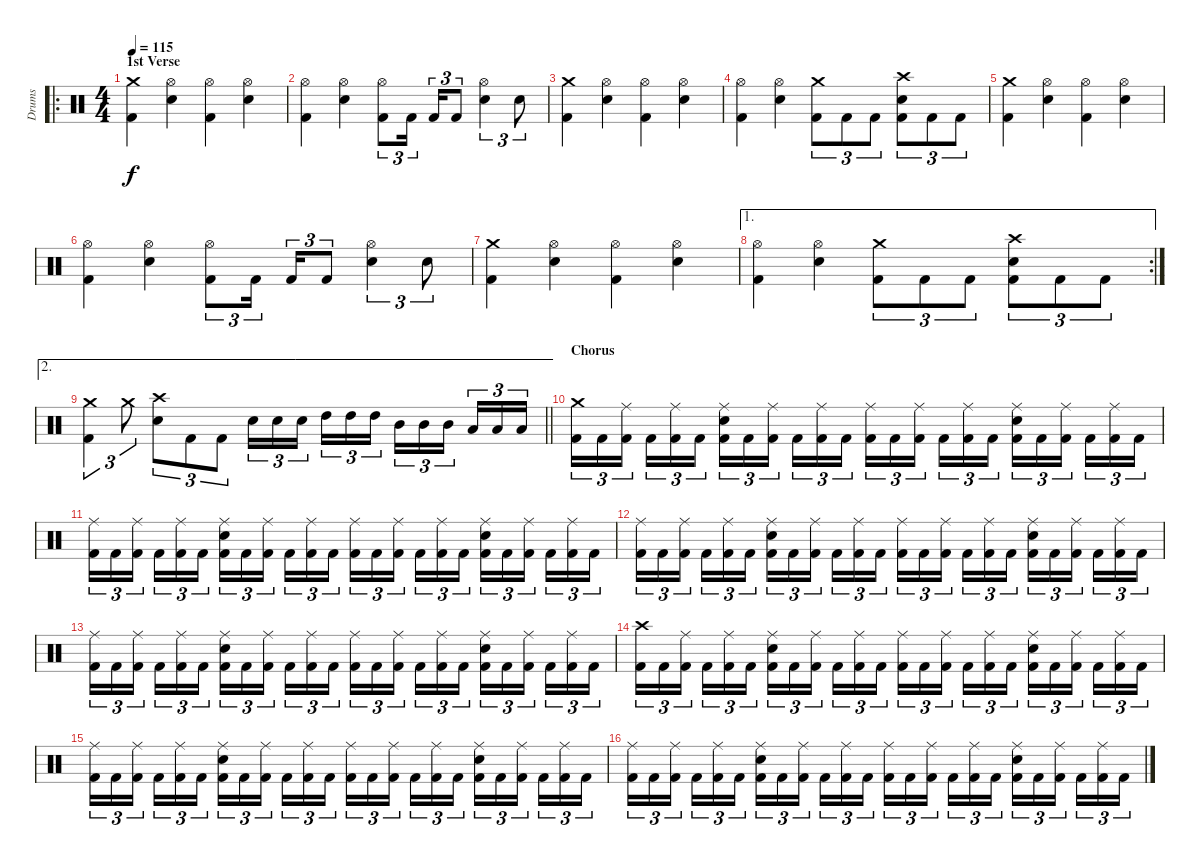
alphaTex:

\track ("Drums" "Drums") {instrument percussion}
\staff {score}
\articulation defaults
\ro
\ts (4 4)
\section ("" "1st Verse")
\tempo 115
\clef neutral
\ks c
("Kick (hit) 2" "Crash medium (hit)").4{dy f} ("Electric Snare (hit)" "Hi-Hat (open)").4 ("Kick (hit) 2" "Hi-Hat (open)").4 ("Electric Snare (hit)" "Hi-Hat (open)").4 |
("Kick (hit) 2" "Hi-Hat (open)").4 ("Electric Snare (hit)" "Hi-Hat (open)").4 ("Kick (hit) 2" "Hi-Hat (open)").8{tu (3 2)} "Kick (hit) 2".16{tu (3 2)} "Kick (hit) 2".16{tu (3 2)} "Kick (hit) 2".8{tu (3 2)} ("Electric Snare (hit)" "Hi-Hat (open)").4{tu (3 2)} "Electric Snare (hit)".8{tu (3 2)} |
("Kick (hit) 2" "Crash medium (hit)").4 ("Electric Snare (hit)" "Hi-Hat (open)").4 ("Kick (hit) 2" "Hi-Hat (open)").4 ("Electric Snare (hit)" "Hi-Hat (open)").4 |
("Kick (hit) 2" "Hi-Hat (open)").4 ("Electric Snare (hit)" "Hi-Hat (open)").4 ("Kick (hit) 2" "Crash medium (hit)").8{tu (3 2)} "Kick (hit) 2".8{tu (3 2)} "Kick (hit) 2".8{tu (3 2)} ("Kick (hit) 2" "Electric Snare (hit)" "Crash high (hit)").8{tu (3 2)} "Kick (hit) 2".8{tu (3 2)} "Kick (hit) 2".8{tu (3 2)} |
("Kick (hit) 2" "Crash medium (hit)").4 ("Electric Snare (hit)" "Hi-Hat (open)").4 ("Kick (hit) 2" "Hi-Hat (open)").4 ("Electric Snare (hit)" "Hi-Hat (open)").4 |
("Kick (hit) 2" "Hi-Hat (open)").4 ("Electric Snare (hit)" "Hi-Hat (open)").4 ("Kick (hit) 2" "Hi-Hat (open)").8{tu (3 2)} "Kick (hit) 2".16{tu (3 2)} "Kick (hit) 2".16{tu (3 2)} "Kick (hit) 2".8{tu (3 2)} ("Electric Snare (hit)" "Hi-Hat (open)").4{tu (3 2)} "Electric Snare (hit)".8{tu (3 2)} |
("Kick (hit) 2" "Crash medium (hit)").4 ("Electric Snare (hit)" "Hi-Hat (open)").4 ("Kick (hit) 2" "Hi-Hat (open)").4 ("Electric Snare (hit)" "Hi-Hat (open)").4 |
\ae 1
\rc 2
("Kick (hit) 2" "Hi-Hat (open)").4 ("Electric Snare (hit)" "Hi-Hat (open)").4 ("Kick (hit) 2" "Crash medium (hit)").8{tu (3 2)} "Kick (hit) 2".8{tu (3 2)} "Kick (hit) 2".8{tu (3 2)} ("Kick (hit) 2" "Electric Snare (hit)" "Crash high (hit)").8{tu (3 2)} "Kick (hit) 2".8{tu (3 2)} "Kick (hit) 2".8{tu (3 2)} |
\ae 2
\barLineRight lightlight
("Kick (hit) 2" "Crash medium (hit)").4{tu (3 2)} "Crash medium (hit)".8{tu (3 2)} ("Electric Snare (hit)" "Crash high (hit)").8{tu (3 2)} "Kick (hit) 2".8{tu (3 2)} "Kick (hit) 2".8{tu (3 2)} "Electric Snare (hit)".16{tu (3 2)} "Electric Snare (hit)".16{tu (3 2)} "Electric Snare (hit)".16{tu (3 2)} "High Tom (hit)".16{tu (3 2)} "High Tom (hit)".16{tu (3 2)} "High Tom (hit)".16{tu (3 2)} "Mid Tom (hit)".16{tu (3 2)} "Mid Tom (hit)".16{tu (3 2)} "Mid Tom (hit)".16{tu (3 2)} "Low Tom (hit)".16{tu (3 2)} "Low Tom (hit)".16{tu (3 2)} "Low Tom (hit)".16{tu (3 2)} |
\section ("" "Chorus")
("Kick (hit) 2" "Crash medium (hit)").16{tu (3 2)} "Kick (hit) 2".16{tu (3 2)} ("Kick (hit) 2" "Ride (middle)").16{tu (3 2)} "Kick (hit) 2".16{tu (3 2)} ("Kick (hit) 2" "Ride (middle)").16{tu (3 2)} "Kick (hit) 2".16{tu (3 2)} ("Kick (hit) 2" "Electric Snare (hit)" "Ride (middle)").16{tu (3 2)} "Kick (hit) 2".16{tu (3 2)} ("Kick (hit) 2" "Ride (middle)").16{tu (3 2)} "Kick (hit) 2".16{tu (3 2)} ("Kick (hit) 2" "Ride (middle)").16{tu (3 2)} "Kick (hit) 2".16{tu (3 2)} ("Kick (hit) 2" "Ride (middle)").16{tu (3 2)} "Kick (hit) 2".16{tu (3 2)} ("Kick (hit) 2" "Ride (middle)").16{tu (3 2)} "Kick (hit) 2".16{tu (3 2)} ("Kick (hit) 2" "Ride (middle)").16{tu (3 2)} "Kick (hit) 2".16{tu (3 2)} ("Kick (hit) 2" "Electric Snare (hit)" "Ride (middle)").16{tu (3 2)} "Kick (hit) 2".16{tu (3 2)} ("Kick (hit) 2" "Ride (middle)").16{tu (3 2)} "Kick (hit) 2".16{tu (3 2)} ("Kick (hit) 2" "Ride (middle)").16{tu (3 2)} "Kick (hit) 2".16{tu (3 2)} |
("Kick (hit) 2" "Ride (middle)").16{tu (3 2)} "Kick (hit) 2".16{tu (3 2)} ("Kick (hit) 2" "Ride (middle)").16{tu (3 2)} "Kick (hit) 2".16{tu (3 2)} ("Kick (hit) 2" "Ride (middle)").16{tu (3 2)} "Kick (hit) 2".16{tu (3 2)} ("Kick (hit) 2" "Electric Snare (hit)" "Ride (middle)").16{tu (3 2)} "Kick (hit) 2".16{tu (3 2)} ("Kick (hit) 2" "Ride (middle)").16{tu (3 2)} "Kick (hit) 2".16{tu (3 2)} ("Kick (hit) 2" "Ride (middle)").16{tu (3 2)} "Kick (hit) 2".16{tu (3 2)} ("Kick (hit) 2" "Ride (middle)").16{tu (3 2)} "Kick (hit) 2".16{tu (3 2)} ("Kick (hit) 2" "Ride (middle)").16{tu (3 2)} "Kick (hit) 2".16{tu (3 2)} ("Kick (hit) 2" "Ride (middle)").16{tu (3 2)} "Kick (hit) 2".16{tu (3 2)} ("Kick (hit) 2" "Electric Snare (hit)" "Ride (middle)").16{tu (3 2)} "Kick (hit) 2".16{tu (3 2)} ("Kick (hit) 2" "Ride (middle)").16{tu (3 2)} "Kick (hit) 2".16{tu (3 2)} ("Kick (hit) 2" "Ride (middle)").16{tu (3 2)} "Kick (hit) 2".16{tu (3 2)} |
("Kick (hit) 2" "Ride (middle)").16{tu (3 2)} "Kick (hit) 2".16{tu (3 2)} ("Kick (hit) 2" "Ride (middle)").16{tu (3 2)} "Kick (hit) 2".16{tu (3 2)} ("Kick (hit) 2" "Ride (middle)").16{tu (3 2)} "Kick (hit) 2".16{tu (3 2)} ("Kick (hit) 2" "Electric Snare (hit)" "Ride (middle)").16{tu (3 2)} "Kick (hit) 2".16{tu (3 2)} ("Kick (hit) 2" "Ride (middle)").16{tu (3 2)} "Kick (hit) 2".16{tu (3 2)} ("Kick (hit) 2" "Ride (middle)").16{tu (3 2)} "Kick (hit) 2".16{tu (3 2)} ("Kick (hit) 2" "Ride (middle)").16{tu (3 2)} "Kick (hit) 2".16{tu (3 2)} ("Kick (hit) 2" "Ride (middle)").16{tu (3 2)} "Kick (hit) 2".16{tu (3 2)} ("Kick (hit) 2" "Ride (middle)").16{tu (3 2)} "Kick (hit) 2".16{tu (3 2)} ("Kick (hit) 2" "Electric Snare (hit)" "Ride (middle)").16{tu (3 2)} "Kick (hit) 2".16{tu (3 2)} ("Kick (hit) 2" "Ride (middle)").16{tu (3 2)} "Kick (hit) 2".16{tu (3 2)} ("Kick (hit) 2" "Ride (middle)").16{tu (3 2)} "Kick (hit) 2".16{tu (3 2)} |
("Kick (hit) 2" "Ride (middle)").16{tu (3 2)} "Kick (hit) 2".16{tu (3 2)} ("Kick (hit) 2" "Ride (middle)").16{tu (3 2)} "Kick (hit) 2".16{tu (3 2)} ("Kick (hit) 2" "Ride (middle)").16{tu (3 2)} "Kick (hit) 2".16{tu (3 2)} ("Kick (hit) 2" "Electric Snare (hit)" "Ride (middle)").16{tu (3 2)} "Kick (hit) 2".16{tu (3 2)} ("Kick (hit) 2" "Ride (middle)").16{tu (3 2)} "Kick (hit) 2".16{tu (3 2)} ("Kick (hit) 2" "Ride (middle)").16{tu (3 2)} "Kick (hit) 2".16{tu (3 2)} ("Kick (hit) 2" "Ride (middle)").16{tu (3 2)} "Kick (hit) 2".16{tu (3 2)} ("Kick (hit) 2" "Ride (middle)").16{tu (3 2)} "Kick (hit) 2".16{tu (3 2)} ("Kick (hit) 2" "Ride (middle)").16{tu (3 2)} "Kick (hit) 2".16{tu (3 2)} ("Kick (hit) 2" "Electric Snare (hit)" "Ride (middle)").16{tu (3 2)} "Kick (hit) 2".16{tu (3 2)} ("Kick (hit) 2" "Ride (middle)").16{tu (3 2)} "Kick (hit) 2".16{tu (3 2)} ("Kick (hit) 2" "Ride (middle)").16{tu (3 2)} "Kick (hit) 2".16{tu (3 2)} |
("Kick (hit) 2" "Crash high (hit)").16{tu (3 2)} "Kick (hit) 2".16{tu (3 2)} ("Kick (hit) 2" "Ride (middle)").16{tu (3 2)} "Kick (hit) 2".16{tu (3 2)} ("Kick (hit) 2" "Ride (middle)").16{tu (3 2)} "Kick (hit) 2".16{tu (3 2)} ("Kick (hit) 2" "Electric Snare (hit)" "Ride (middle)").16{tu (3 2)} "Kick (hit) 2".16{tu (3 2)} ("Kick (hit) 2" "Ride (middle)").16{tu (3 2)} "Kick (hit) 2".16{tu (3 2)} ("Kick (hit) 2" "Ride (middle)").16{tu (3 2)} "Kick (hit) 2".16{tu (3 2)} ("Kick (hit) 2" "Ride (middle)").16{tu (3 2)} "Kick (hit) 2".16{tu (3 2)} ("Kick (hit) 2" "Ride (middle)").16{tu (3 2)} "Kick (hit) 2".16{tu (3 2)} ("Kick (hit) 2" "Ride (middle)").16{tu (3 2)} "Kick (hit) 2".16{tu (3 2)} ("Kick (hit) 2" "Electric Snare (hit)" "Ride (middle)").16{tu (3 2)} "Kick (hit) 2".16{tu (3 2)} ("Kick (hit) 2" "Ride (middle)").16{tu (3 2)} "Kick (hit) 2".16{tu (3 2)} ("Kick (hit) 2" "Ride (middle)").16{tu (3 2)} "Kick (hit) 2".16{tu (3 2)} |
("Kick (hit) 2" "Ride (middle)").16{tu (3 2)} "Kick (hit) 2".16{tu (3 2)} ("Kick (hit) 2" "Ride (middle)").16{tu (3 2)} "Kick (hit) 2".16{tu (3 2)} ("Kick (hit) 2" "Ride (middle)").16{tu (3 2)} "Kick (hit) 2".16{tu (3 2)} ("Kick (hit) 2" "Electric Snare (hit)" "Ride (middle)").16{tu (3 2)} "Kick (hit) 2".16{tu (3 2)} ("Kick (hit) 2" "Ride (middle)").16{tu (3 2)} "Kick (hit) 2".16{tu (3 2)} ("Kick (hit) 2" "Ride (middle)").16{tu (3 2)} "Kick (hit) 2".16{tu (3 2)} ("Kick (hit) 2" "Ride (middle)").16{tu (3 2)} "Kick (hit) 2".16{tu (3 2)} ("Kick (hit) 2" "Ride (middle)").16{tu (3 2)} "Kick (hit) 2".16{tu (3 2)} ("Kick (hit) 2" "Ride (middle)").16{tu (3 2)} "Kick (hit) 2".16{tu (3 2)} ("Kick (hit) 2" "Electric Snare (hit)" "Ride (middle)").16{tu (3 2)} "Kick (hit) 2".16{tu (3 2)} ("Kick (hit) 2" "Ride (middle)").16{tu (3 2)} "Kick (hit) 2".16{tu (3 2)} ("Kick (hit) 2" "Ride (middle)").16{tu (3 2)} "Kick (hit) 2".16{tu (3 2)} |
("Kick (hit) 2" "Ride (middle)").16{tu (3 2)} "Kick (hit) 2".16{tu (3 2)} ("Kick (hit) 2" "Ride (middle)").16{tu (3 2)} "Kick (hit) 2".16{tu (3 2)} ("Kick (hit) 2" "Ride (middle)").16{tu (3 2)} "Kick (hit) 2".16{tu (3 2)} ("Kick (hit) 2" "Electric Snare (hit)" "Ride (middle)").16{tu (3 2)} "Kick (hit) 2".16{tu (3 2)} ("Kick (hit) 2" "Ride (middle)").16{tu (3 2)} "Kick (hit) 2".16{tu (3 2)} ("Kick (hit) 2" "Ride (middle)").16{tu (3 2)} "Kick (hit) 2".16{tu (3 2)} ("Kick (hit) 2" "Ride (middle)").16{tu (3 2)} "Kick (hit) 2".16{tu (3 2)} ("Kick (hit) 2" "Ride (middle)").16{tu (3 2)} "Kick (hit) 2".16{tu (3 2)} ("Kick (hit) 2" "Ride (middle)").16{tu (3 2)} "Kick (hit) 2".16{tu (3 2)} ("Kick (hit) 2" "Electric Snare (hit)" "Ride (middle)").16{tu (3 2)} "Kick (hit) 2".16{tu (3 2)} ("Kick (hit) 2" "Ride (middle)").16{tu (3 2)} "Kick (hit) 2".16{tu (3 2)} ("Kick (hit) 2" "Ride (middle)").16{tu (3 2)} "Kick (hit) 2".16{tu (3 2)}
